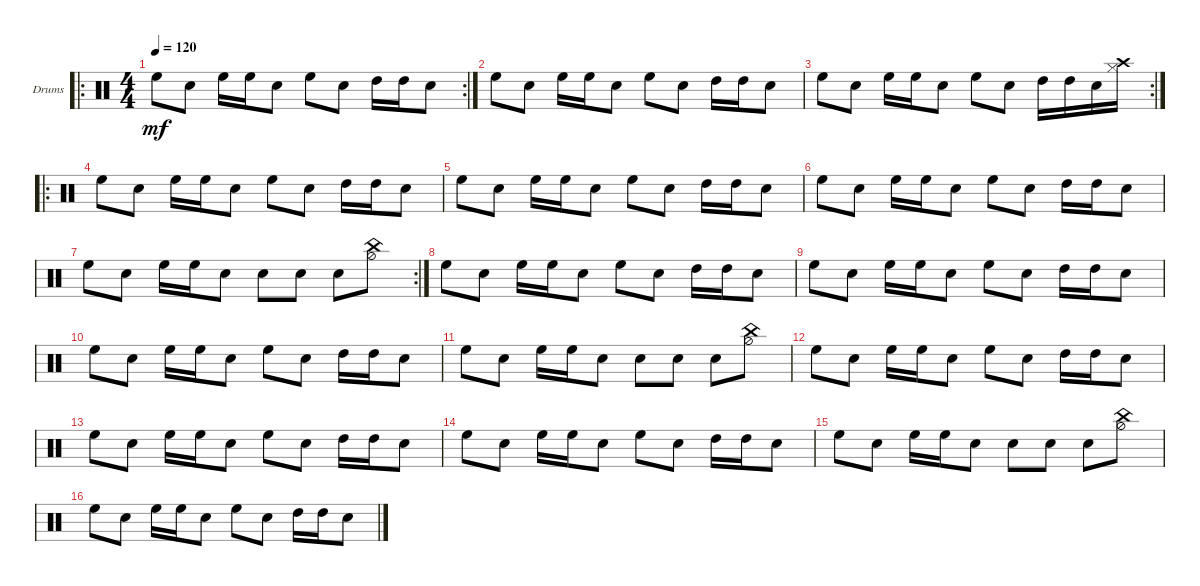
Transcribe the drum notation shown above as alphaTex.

\defaultSystemsLayout 4
\bracketExtendMode groupsimilarinstruments
\firstSystemTrackNameOrientation horizontal
\otherSystemsTrackNameOrientation horizontal
\track ("Drumkit" "Drums") {instrument percussion}
\staff {score}
\articulation defaults
\ro
\rc 2
\ts (4 4)
\tempo 120
\clef neutral
\scale
0.474178
\ks c "High Floor Tom (hit)".8{dy mf} "Snare (hit) 2".8 "High Floor Tom (hit)".16 "High Floor Tom (hit)".16 "Snare (hit) 2".8 "High Floor Tom (hit)".8 "Snare (hit) 2".8 "High Tom (hit)".16 "High Tom (hit)".16 "Snare (hit) 2".8
|
\scale
0.262911 "High Floor Tom (hit)".8 "Snare (hit) 2".8 "High Floor Tom (hit)".16 "High Floor Tom (hit)".16 "Snare (hit) 2".8 "High Floor Tom (hit)".8 "Snare (hit) 2".8 "High Tom (hit)".16 "High Tom (hit)".16 "Snare (hit) 2".8 |
\rc 2
\scale
0.262911 "High Floor Tom (hit)".8 "Snare (hit) 2".8 "High Floor Tom (hit)".16 "High Floor Tom (hit)".16 "Snare (hit) 2".8 "High Floor Tom (hit)".8 "Snare (hit) 2".8 "High Tom (hit)".16 "High Tom (hit)".16 "Snare (hit) 2".16 ("Hi-Hat (closed)" "Crash high (hit)").16 |
\ro "High Floor Tom (hit)".8 "Snare (hit) 2".8 "High Floor Tom (hit)".16 "High Floor Tom (hit)".16 "Snare (hit) 2".8 "High Floor Tom (hit)".8 "Snare (hit) 2".8 "High Tom (hit)".16 "High Tom (hit)".16 "Snare (hit) 2".8
|
"High Floor Tom (hit)".8 "Snare (hit) 2".8 "High Floor Tom (hit)".16 "High Floor Tom (hit)".16 "Snare (hit) 2".8 "High Floor Tom (hit)".8 "Snare (hit) 2".8 "High Tom (hit)".16 "High Tom (hit)".16 "Snare (hit) 2".8 |
"High Floor Tom (hit)".8 "Snare (hit) 2".8 "High Floor Tom (hit)".16 "High Floor Tom (hit)".16 "Snare (hit) 2".8 "High Floor Tom (hit)".8 "Snare (hit) 2".8 "High Tom (hit)".16 "High Tom (hit)".16 "Snare (hit) 2".8 |
\rc 2 "High Floor Tom (hit)".8 "Snare (hit) 2".8 "High Floor Tom (hit)".16 "High Floor Tom (hit)".16 "Snare (hit) 2".8 "Snare (hit) 2".8 "Snare (hit) 2".8 "Snare (hit) 2".8
("Hi-Hat (half)" "China (hit)").8 |
"High Floor Tom (hit)".8 "Snare (hit) 2".8 "High Floor Tom (hit)".16 "High Floor Tom (hit)".16 "Snare (hit) 2".8 "High Floor Tom (hit)".8 "Snare (hit) 2".8 "High Tom (hit)".16 "High Tom (hit)".16 "Snare (hit) 2".8 |
"High Floor Tom (hit)".8 "Snare (hit) 2".8 "High Floor Tom (hit)".16 "High Floor Tom (hit)".16 "Snare (hit) 2".8 "High Floor Tom (hit)".8 "Snare (hit) 2".8 "High Tom (hit)".16 "High Tom (hit)".16 "Snare (hit) 2".8 |
"High Floor Tom (hit)".8 "Snare (hit) 2".8 "High Floor Tom (hit)".16 "High Floor Tom (hit)".16 "Snare (hit) 2".8 "High Floor Tom (hit)".8 "Snare (hit) 2".8 "High Tom (hit)".16 "High Tom (hit)".16 "Snare (hit) 2".8 |
"High Floor Tom (hit)".8 "Snare (hit) 2".8 "High Floor Tom (hit)".16 "High Floor Tom (hit)".16 "Snare (hit) 2".8 "Snare (hit) 2".8 "Snare (hit) 2".8 "Snare (hit) 2".8 ("Hi-Hat (half)" "China (hit)").8 |
"High Floor Tom (hit)".8 "Snare (hit) 2".8 "High Floor Tom (hit)".16 "High Floor Tom (hit)".16 "Snare (hit) 2".8 "High Floor Tom (hit)".8 "Snare (hit) 2".8 "High Tom (hit)".16 "High Tom (hit)".16 "Snare (hit) 2".8 |
"High Floor Tom (hit)".8 "Snare (hit) 2".8 "High Floor Tom (hit)".16 "High Floor Tom (hit)".16 "Snare (hit) 2".8 "High Floor Tom (hit)".8 "Snare (hit) 2".8 "High Tom (hit)".16 "High Tom (hit)".16 "Snare (hit) 2".8 |
"High Floor Tom (hit)".8 "Snare (hit) 2".8 "High Floor Tom (hit)".16 "High Floor Tom (hit)".16 "Snare (hit) 2".8 "High Floor Tom (hit)".8 "Snare (hit) 2".8 "High Tom (hit)".16 "High Tom (hit)".16 "Snare (hit) 2".8 |
"High Floor Tom (hit)".8 "Snare (hit) 2".8 "High Floor Tom (hit)".16 "High Floor Tom (hit)".16 "Snare (hit) 2".8 "Snare (hit) 2".8 "Snare (hit) 2".8 "Snare (hit) 2".8 ("Hi-Hat (half)" "China (hit)").8 |
"High Floor Tom (hit)".8 "Snare (hit) 2".8 "High Floor Tom (hit)".16 "High Floor Tom (hit)".16 "Snare (hit) 2".8 "High Floor Tom (hit)".8 "Snare (hit) 2".8 "High Tom (hit)".16 "High Tom (hit)".16 "Snare (hit) 2".8
